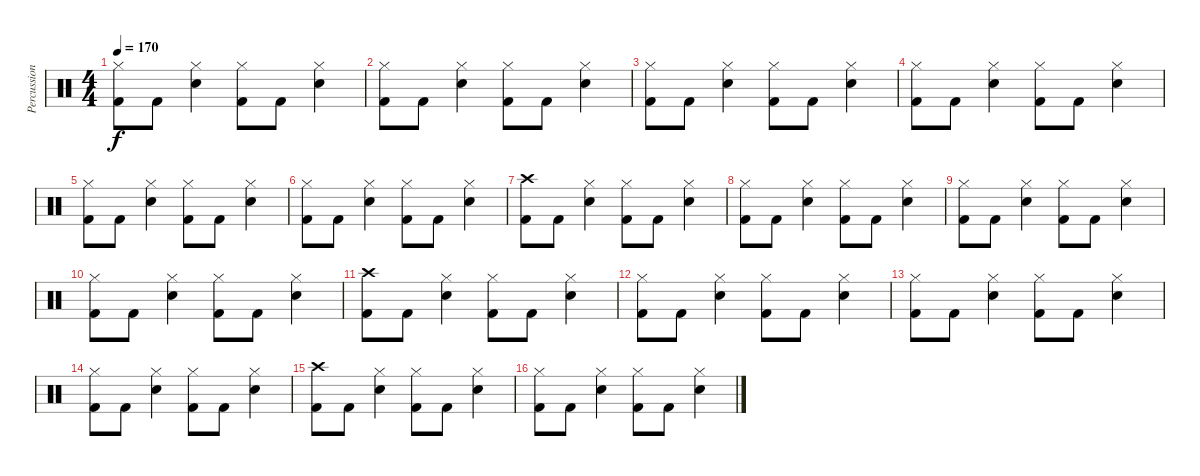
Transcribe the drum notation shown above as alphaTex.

\track ("Percussion" "Percussion") {instrument percussion}
\staff {score}
\articulation defaults
\ts (4 4)
\tempo 170
\clef neutral
\ks c
("Hi-Hat (closed)" "Kick (hit) 2").8{dy f} "Kick (hit) 2".8 ("Hi-Hat (closed)" "Electric Snare (hit)").4 ("Hi-Hat (closed)" "Kick (hit) 2").8 "Kick (hit) 2".8 ("Hi-Hat (closed)" "Electric Snare (hit)").4 |
("Hi-Hat (closed)" "Kick (hit) 2").8 "Kick (hit) 2".8 ("Hi-Hat (closed)" "Electric Snare (hit)").4 ("Hi-Hat (closed)" "Kick (hit) 2").8 "Kick (hit) 2".8 ("Hi-Hat (closed)" "Electric Snare (hit)").4 |
("Hi-Hat (closed)" "Kick (hit) 2").8 "Kick (hit) 2".8 ("Hi-Hat (closed)" "Electric Snare (hit)").4 ("Hi-Hat (closed)" "Kick (hit) 2").8 "Kick (hit) 2".8 ("Hi-Hat (closed)" "Electric Snare (hit)").4 |
("Hi-Hat (closed)" "Kick (hit) 2").8 "Kick (hit) 2".8 ("Hi-Hat (closed)" "Electric Snare (hit)").4 ("Hi-Hat (closed)" "Kick (hit) 2").8 "Kick (hit) 2".8 ("Hi-Hat (closed)" "Electric Snare (hit)").4 |
("Hi-Hat (closed)" "Kick (hit) 2").8 "Kick (hit) 2".8 ("Hi-Hat (closed)" "Electric Snare (hit)").4 ("Hi-Hat (closed)" "Kick (hit) 2").8 "Kick (hit) 2".8 ("Hi-Hat (closed)" "Electric Snare (hit)").4 |
("Hi-Hat (closed)" "Kick (hit) 2").8 "Kick (hit) 2".8 ("Hi-Hat (closed)" "Electric Snare (hit)").4 ("Hi-Hat (closed)" "Kick (hit) 2").8 "Kick (hit) 2".8 ("Hi-Hat (closed)" "Electric Snare (hit)").4 |
("Crash high (hit)" "Kick (hit) 2").8 "Kick (hit) 2".8 ("Hi-Hat (closed)" "Electric Snare (hit)").4 ("Hi-Hat (closed)" "Kick (hit) 2").8 "Kick (hit) 2".8 ("Hi-Hat (closed)" "Electric Snare (hit)").4 |
("Hi-Hat (closed)" "Kick (hit) 2").8 "Kick (hit) 2".8 ("Hi-Hat (closed)" "Electric Snare (hit)").4 ("Hi-Hat (closed)" "Kick (hit) 2").8 "Kick (hit) 2".8 ("Hi-Hat (closed)" "Electric Snare (hit)").4 |
("Hi-Hat (closed)" "Kick (hit) 2").8 "Kick (hit) 2".8 ("Hi-Hat (closed)" "Electric Snare (hit)").4 ("Hi-Hat (closed)" "Kick (hit) 2").8 "Kick (hit) 2".8 ("Hi-Hat (closed)" "Electric Snare (hit)").4 |
("Hi-Hat (closed)" "Kick (hit) 2").8 "Kick (hit) 2".8 ("Hi-Hat (closed)" "Electric Snare (hit)").4 ("Hi-Hat (closed)" "Kick (hit) 2").8 "Kick (hit) 2".8 ("Hi-Hat (closed)" "Electric Snare (hit)").4 |
("Crash high (hit)" "Kick (hit) 2").8 "Kick (hit) 2".8 ("Hi-Hat (closed)" "Electric Snare (hit)").4 ("Hi-Hat (closed)" "Kick (hit) 2").8 "Kick (hit) 2".8 ("Hi-Hat (closed)" "Electric Snare (hit)").4 |
("Hi-Hat (closed)" "Kick (hit) 2").8 "Kick (hit) 2".8 ("Hi-Hat (closed)" "Electric Snare (hit)").4 ("Hi-Hat (closed)" "Kick (hit) 2").8 "Kick (hit) 2".8 ("Hi-Hat (closed)" "Electric Snare (hit)").4 |
("Hi-Hat (closed)" "Kick (hit) 2").8 "Kick (hit) 2".8 ("Hi-Hat (closed)" "Electric Snare (hit)").4 ("Hi-Hat (closed)" "Kick (hit) 2").8 "Kick (hit) 2".8 ("Hi-Hat (closed)" "Electric Snare (hit)").4 |
("Hi-Hat (closed)" "Kick (hit) 2").8 "Kick (hit) 2".8 ("Hi-Hat (closed)" "Electric Snare (hit)").4 ("Hi-Hat (closed)" "Kick (hit) 2").8 "Kick (hit) 2".8 ("Hi-Hat (closed)" "Electric Snare (hit)").4 |
("Crash high (hit)" "Kick (hit) 2").8 "Kick (hit) 2".8 ("Hi-Hat (closed)" "Electric Snare (hit)").4 ("Hi-Hat (closed)" "Kick (hit) 2").8 "Kick (hit) 2".8 ("Hi-Hat (closed)" "Electric Snare (hit)").4 |
("Hi-Hat (closed)" "Kick (hit) 2").8 "Kick (hit) 2".8 ("Hi-Hat (closed)" "Electric Snare (hit)").4 ("Hi-Hat (closed)" "Kick (hit) 2").8 "Kick (hit) 2".8 ("Hi-Hat (closed)" "Electric Snare (hit)").4
